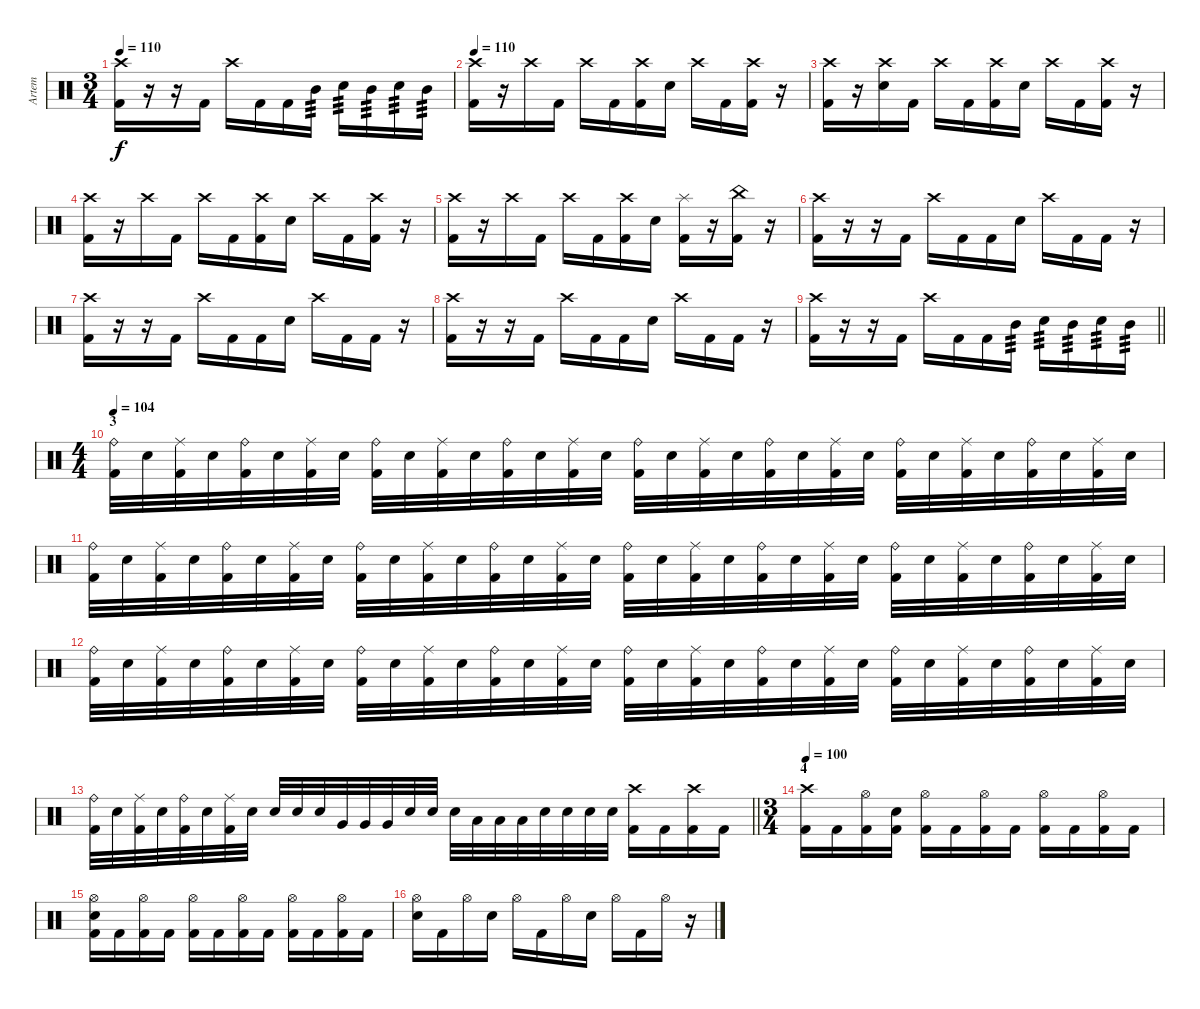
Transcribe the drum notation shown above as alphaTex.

\track ("Artem" "Artem") {instrument percussion}
\staff {score}
\articulation defaults
\ts (3 4)
\tempo 110
\clef neutral
\ks c
("Kick (hit) 2" "Crash high (hit)").16{dy f} r.16 r.16 "Kick (hit) 2".16 "Crash high (hit)".16 "Kick (hit) 2".16 "Kick (hit) 2".16 "Mid Tom (hit)".16{tp 3} "Snare (hit) 2".16{tp 3} "Mid Tom (hit)".16{tp 3} "Snare (hit) 2".16{tp 3} "Mid Tom (hit)".16{tp 3} |
\tempo 110
("Kick (hit) 2" "Crash high (hit)").16 r.16 "Crash high (hit)".16 "Kick (hit) 2".16 "Crash high (hit)".16 "Kick (hit) 2".16 ("Kick (hit) 2" "Crash high (hit)").16 "Snare (hit) 2".16 "Crash high (hit)".16 "Kick (hit) 2".16 ("Kick (hit) 2" "Crash high (hit)").16 r.16 |
("Kick (hit) 2" "Crash high (hit)").16 r.16 ("Crash high (hit)" "Snare (hit) 2").16 "Kick (hit) 2".16 "Crash high (hit)".16 "Kick (hit) 2".16 ("Kick (hit) 2" "Crash high (hit)").16 "Snare (hit) 2".16 "Crash high (hit)".16 "Kick (hit) 2".16 ("Kick (hit) 2" "Crash high (hit)").16 r.16 |
("Kick (hit) 2" "Crash high (hit)").16 r.16 "Crash high (hit)".16 "Kick (hit) 2".16 "Crash high (hit)".16 "Kick (hit) 2".16 ("Kick (hit) 2" "Crash high (hit)").16 "Snare (hit) 2".16 "Crash high (hit)".16 "Kick (hit) 2".16 ("Kick (hit) 2" "Crash high (hit)").16 r.16 |
("Kick (hit) 2" "Crash high (hit)").16 r.16 "Crash high (hit)".16 "Kick (hit) 2".16 "Crash high (hit)".16 "Kick (hit) 2".16 ("Kick (hit) 2" "Crash high (hit)").16 "Snare (hit) 2".16 ("Kick (hit) 2" "Splash (hit)").16 r.16 ("Kick (hit) 2" "China (hit)").16 r.16 |
("Kick (hit) 2" "Crash high (hit)").16 r.16 r.16 "Kick (hit) 2".16 "Crash high (hit)".16 "Kick (hit) 2".16 "Kick (hit) 2".16 "Snare (hit) 2".16 "Crash high (hit)".16 "Kick (hit) 2".16 "Kick (hit) 2".16 r.16 |
("Kick (hit) 2" "Crash high (hit)").16 r.16 r.16 "Kick (hit) 2".16 "Crash high (hit)".16 "Kick (hit) 2".16 "Kick (hit) 2".16 "Snare (hit) 2".16 "Crash high (hit)".16 "Kick (hit) 2".16 "Kick (hit) 2".16 r.16 |
("Kick (hit) 2" "Crash high (hit)").16 r.16 r.16 "Kick (hit) 2".16 "Crash high (hit)".16 "Kick (hit) 2".16 "Kick (hit) 2".16 "Snare (hit) 2".16 "Crash high (hit)".16 "Kick (hit) 2".16 "Kick (hit) 2".16 r.16 |
\barLineRight lightlight
("Kick (hit) 2" "Crash high (hit)").16 r.16 r.16 "Kick (hit) 2".16 "Crash high (hit)".16 "Kick (hit) 2".16 "Kick (hit) 2".16 "Mid Tom (hit)".16{tp 3} "Snare (hit) 2".16{tp 3} "Mid Tom (hit)".16{tp 3} "Snare (hit) 2".16{tp 3} "Mid Tom (hit)".16{tp 3} |
\ts (4 4)
\section ("" "3")
\tempo 104
("Kick (hit) 2" "Ride (bell)").32 "Snare (hit) 2".32 ("Kick (hit) 2" "Ride (middle)").32 "Snare (hit) 2".32 ("Kick (hit) 2" "Ride (bell)").32 "Snare (hit) 2".32 ("Kick (hit) 2" "Ride (middle)").32 "Snare (hit) 2".32 ("Kick (hit) 2" "Ride (bell)").32 "Snare (hit) 2".32 ("Kick (hit) 2" "Ride (middle)").32 "Snare (hit) 2".32 ("Kick (hit) 2" "Ride (bell)").32 "Snare (hit) 2".32 ("Kick (hit) 2" "Ride (middle)").32 "Snare (hit) 2".32 ("Kick (hit) 2" "Ride (bell)").32 "Snare (hit) 2".32 ("Kick (hit) 2" "Ride (middle)").32 "Snare (hit) 2".32 ("Kick (hit) 2" "Ride (bell)").32 "Snare (hit) 2".32 ("Kick (hit) 2" "Ride (middle)").32 "Snare (hit) 2".32 ("Kick (hit) 2" "Ride (bell)").32 "Snare (hit) 2".32 ("Kick (hit) 2" "Ride (middle)").32 "Snare (hit) 2".32 ("Kick (hit) 2" "Ride (bell)").32 "Snare (hit) 2".32 ("Kick (hit) 2" "Ride (middle)").32 "Snare (hit) 2".32 |
("Kick (hit) 2" "Ride (bell)").32 "Snare (hit) 2".32 ("Kick (hit) 2" "Ride (middle)").32 "Snare (hit) 2".32 ("Kick (hit) 2" "Ride (bell)").32 "Snare (hit) 2".32 ("Kick (hit) 2" "Ride (middle)").32 "Snare (hit) 2".32 ("Kick (hit) 2" "Ride (bell)").32 "Snare (hit) 2".32 ("Kick (hit) 2" "Ride (middle)").32 "Snare (hit) 2".32 ("Kick (hit) 2" "Ride (bell)").32 "Snare (hit) 2".32 ("Kick (hit) 2" "Ride (middle)").32 "Snare (hit) 2".32 ("Kick (hit) 2" "Ride (bell)").32 "Snare (hit) 2".32 ("Kick (hit) 2" "Ride (middle)").32 "Snare (hit) 2".32 ("Kick (hit) 2" "Ride (bell)").32 "Snare (hit) 2".32 ("Kick (hit) 2" "Ride (middle)").32 "Snare (hit) 2".32 ("Kick (hit) 2" "Ride (bell)").32 "Snare (hit) 2".32 ("Kick (hit) 2" "Ride (middle)").32 "Snare (hit) 2".32 ("Kick (hit) 2" "Ride (bell)").32 "Snare (hit) 2".32 ("Kick (hit) 2" "Ride (middle)").32 "Snare (hit) 2".32 |
("Kick (hit) 2" "Ride (bell)").32 "Snare (hit) 2".32 ("Kick (hit) 2" "Ride (middle)").32 "Snare (hit) 2".32 ("Kick (hit) 2" "Ride (bell)").32 "Snare (hit) 2".32 ("Kick (hit) 2" "Ride (middle)").32 "Snare (hit) 2".32 ("Kick (hit) 2" "Ride (bell)").32 "Snare (hit) 2".32 ("Kick (hit) 2" "Ride (middle)").32 "Snare (hit) 2".32 ("Kick (hit) 2" "Ride (bell)").32 "Snare (hit) 2".32 ("Kick (hit) 2" "Ride (middle)").32 "Snare (hit) 2".32 ("Kick (hit) 2" "Ride (bell)").32 "Snare (hit) 2".32 ("Kick (hit) 2" "Ride (middle)").32 "Snare (hit) 2".32 ("Kick (hit) 2" "Ride (bell)").32 "Snare (hit) 2".32 ("Kick (hit) 2" "Ride (middle)").32 "Snare (hit) 2".32 ("Kick (hit) 2" "Ride (bell)").32 "Snare (hit) 2".32 ("Kick (hit) 2" "Ride (middle)").32 "Snare (hit) 2".32 ("Kick (hit) 2" "Ride (bell)").32 "Snare (hit) 2".32 ("Kick (hit) 2" "Ride (middle)").32 "Snare (hit) 2".32 |
\barLineRight lightlight
("Kick (hit) 2" "Ride (bell)").32 "Snare (hit) 2".32 ("Kick (hit) 2" "Ride (middle)").32 "Snare (hit) 2".32 ("Kick (hit) 2" "Ride (bell)").32 "Snare (hit) 2".32 ("Kick (hit) 2" "Ride (middle)").32 "Snare (hit) 2".32 "Snare (hit) 2".32 "Snare (hit) 2".32 "Snare (hit) 2".32 "Very Low Tom (hit)".32 "Very Low Tom (hit)".32 "Very Low Tom (hit)".32 "Snare (hit) 2".32 "Snare (hit) 2".32 "Snare (hit) 2".32 "Low Tom (hit)".32 "Low Tom (hit)".32 "Low Tom (hit)".32 "Snare (hit) 2".32 "Snare (hit) 2".32 "Snare (hit) 2".32 "Snare (hit) 2".32 ("Kick (hit) 2" "Crash high (hit)").16 "Kick (hit) 2".16 ("Kick (hit) 2" "Crash high (hit)").16 "Kick (hit) 2".16 |
\ts (3 4)
\section ("" "4")
\tempo 100
("Kick (hit) 2" "Crash high (hit)").16 "Kick (hit) 2".16 ("Hi-Hat (open)" "Kick (hit) 2").16 ("Snare (hit) 2" "Kick (hit) 2").16 ("Hi-Hat (open)" "Kick (hit) 2").16 "Kick (hit) 2".16 ("Hi-Hat (open)" "Kick (hit) 2").16 "Kick (hit) 2".16 ("Hi-Hat (open)" "Kick (hit) 2").16 "Kick (hit) 2".16 ("Hi-Hat (open)" "Kick (hit) 2").16 "Kick (hit) 2".16 |
("Kick (hit) 2" "Snare (hit) 2" "Hi-Hat (open)").16 "Kick (hit) 2".16 ("Kick (hit) 2" "Hi-Hat (open)").16 "Kick (hit) 2".16 ("Hi-Hat (open)" "Kick (hit) 2").16 "Kick (hit) 2".16 ("Hi-Hat (open)" "Kick (hit) 2").16 "Kick (hit) 2".16 ("Hi-Hat (open)" "Kick (hit) 2").16 "Kick (hit) 2".16 ("Hi-Hat (open)" "Kick (hit) 2").16 "Kick (hit) 2".16 |
("Hi-Hat (open)" "Snare (hit) 2").16 "Kick (hit) 2".16 "Hi-Hat (open)".16 "Snare (hit) 2".16 "Hi-Hat (open)".16 "Kick (hit) 2".16 "Hi-Hat (open)".16 "Snare (hit) 2".16 "Hi-Hat (open)".16 "Kick (hit) 2".16 "Hi-Hat (open)".16 r.16
